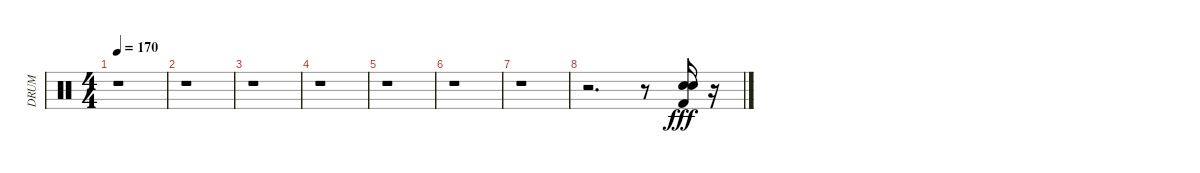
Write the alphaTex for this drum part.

\track ("DRUM" "DRUM") {instrument percussion}
\staff {score}
\articulation defaults
\ts (4 4)
\tempo 170
\clef neutral
\ks c
r.1{dy f} |
r.1 |
r.1 |
r.1 |
r.1 |
r.1 |
r.1 |
r.2{d} r.8 ("Snare (hit) 2" "Electric Snare (hit)" "Kick (hit) 2").16{dy fff} r.16
